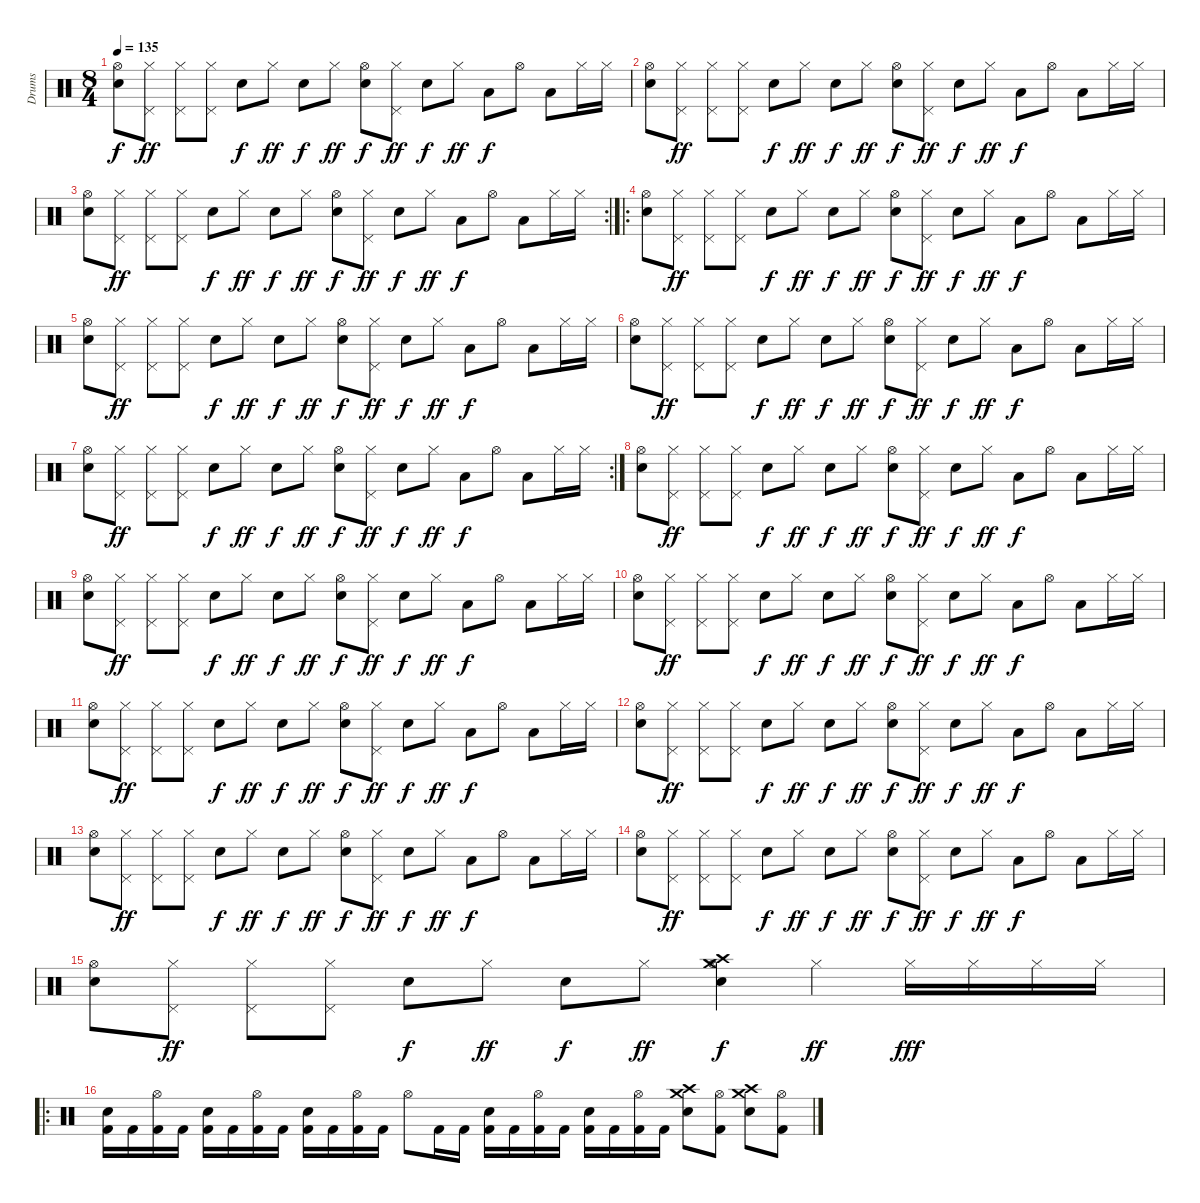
\track ("Drums" "Drums") {instrument percussion}
\staff {score}
\articulation defaults
\ts (8 4)
\tempo 135
\clef neutral
\ks c
("Hi-Hat (open)" "Electric Snare (hit)").8{dy f} ("Pedal Hi-Hat (hit)" "Hi-Hat (closed)").8{dy ff} ("Hi-Hat (closed)" "Pedal Hi-Hat (hit)").8 ("Hi-Hat (closed)" "Pedal Hi-Hat (hit)").8 "Electric Snare (hit)".8{dy f} "Hi-Hat (closed)".8{dy ff} "Electric Snare (hit)".8{dy f} "Hi-Hat (closed)".8{dy ff} ("Hi-Hat (open)" "Electric Snare (hit)").8{dy f} ("Pedal Hi-Hat (hit)" "Hi-Hat (closed)").8{dy ff} "Electric Snare (hit)".8{dy f} "Hi-Hat (closed)".8{dy ff} "Low Tom (hit)".8{dy f} "Hi-Hat (open)".8 "Low Tom (hit)".8 "Hi-Hat (closed)".16 "Hi-Hat (closed)".16 |
("Hi-Hat (open)" "Electric Snare (hit)").8 ("Pedal Hi-Hat (hit)" "Hi-Hat (closed)").8{dy ff} ("Hi-Hat (closed)" "Pedal Hi-Hat (hit)").8 ("Hi-Hat (closed)" "Pedal Hi-Hat (hit)").8 "Electric Snare (hit)".8{dy f} "Hi-Hat (closed)".8{dy ff} "Electric Snare (hit)".8{dy f} "Hi-Hat (closed)".8{dy ff} ("Hi-Hat (open)" "Electric Snare (hit)").8{dy f} ("Pedal Hi-Hat (hit)" "Hi-Hat (closed)").8{dy ff} "Electric Snare (hit)".8{dy f} "Hi-Hat (closed)".8{dy ff} "Low Tom (hit)".8{dy f} "Hi-Hat (open)".8 "Low Tom (hit)".8 "Hi-Hat (closed)".16 "Hi-Hat (closed)".16 |
\rc 2
("Hi-Hat (open)" "Electric Snare (hit)").8 ("Pedal Hi-Hat (hit)" "Hi-Hat (closed)").8{dy ff} ("Hi-Hat (closed)" "Pedal Hi-Hat (hit)").8 ("Hi-Hat (closed)" "Pedal Hi-Hat (hit)").8 "Electric Snare (hit)".8{dy f} "Hi-Hat (closed)".8{dy ff} "Electric Snare (hit)".8{dy f} "Hi-Hat (closed)".8{dy ff} ("Hi-Hat (open)" "Electric Snare (hit)").8{dy f} ("Pedal Hi-Hat (hit)" "Hi-Hat (closed)").8{dy ff} "Electric Snare (hit)".8{dy f} "Hi-Hat (closed)".8{dy ff} "Low Tom (hit)".8{dy f} "Hi-Hat (open)".8 "Low Tom (hit)".8 "Hi-Hat (closed)".16 "Hi-Hat (closed)".16 |
\ro
("Hi-Hat (open)" "Electric Snare (hit)").8 ("Pedal Hi-Hat (hit)" "Hi-Hat (closed)").8{dy ff} ("Hi-Hat (closed)" "Pedal Hi-Hat (hit)").8 ("Hi-Hat (closed)" "Pedal Hi-Hat (hit)").8 "Electric Snare (hit)".8{dy f} "Hi-Hat (closed)".8{dy ff} "Electric Snare (hit)".8{dy f} "Hi-Hat (closed)".8{dy ff} ("Hi-Hat (open)" "Electric Snare (hit)").8{dy f} ("Pedal Hi-Hat (hit)" "Hi-Hat (closed)").8{dy ff} "Electric Snare (hit)".8{dy f} "Hi-Hat (closed)".8{dy ff} "Low Tom (hit)".8{dy f} "Hi-Hat (open)".8 "Low Tom (hit)".8 "Hi-Hat (closed)".16 "Hi-Hat (closed)".16 |
("Hi-Hat (open)" "Electric Snare (hit)").8 ("Pedal Hi-Hat (hit)" "Hi-Hat (closed)").8{dy ff} ("Hi-Hat (closed)" "Pedal Hi-Hat (hit)").8 ("Hi-Hat (closed)" "Pedal Hi-Hat (hit)").8 "Electric Snare (hit)".8{dy f} "Hi-Hat (closed)".8{dy ff} "Electric Snare (hit)".8{dy f} "Hi-Hat (closed)".8{dy ff} ("Hi-Hat (open)" "Electric Snare (hit)").8{dy f} ("Pedal Hi-Hat (hit)" "Hi-Hat (closed)").8{dy ff} "Electric Snare (hit)".8{dy f} "Hi-Hat (closed)".8{dy ff} "Low Tom (hit)".8{dy f} "Hi-Hat (open)".8 "Low Tom (hit)".8 "Hi-Hat (closed)".16 "Hi-Hat (closed)".16 |
("Hi-Hat (open)" "Electric Snare (hit)").8 ("Pedal Hi-Hat (hit)" "Hi-Hat (closed)").8{dy ff} ("Hi-Hat (closed)" "Pedal Hi-Hat (hit)").8 ("Hi-Hat (closed)" "Pedal Hi-Hat (hit)").8 "Electric Snare (hit)".8{dy f} "Hi-Hat (closed)".8{dy ff} "Electric Snare (hit)".8{dy f} "Hi-Hat (closed)".8{dy ff} ("Hi-Hat (open)" "Electric Snare (hit)").8{dy f} ("Pedal Hi-Hat (hit)" "Hi-Hat (closed)").8{dy ff} "Electric Snare (hit)".8{dy f} "Hi-Hat (closed)".8{dy ff} "Low Tom (hit)".8{dy f} "Hi-Hat (open)".8 "Low Tom (hit)".8 "Hi-Hat (closed)".16 "Hi-Hat (closed)".16 |
\rc 2
("Hi-Hat (open)" "Electric Snare (hit)").8 ("Pedal Hi-Hat (hit)" "Hi-Hat (closed)").8{dy ff} ("Hi-Hat (closed)" "Pedal Hi-Hat (hit)").8 ("Hi-Hat (closed)" "Pedal Hi-Hat (hit)").8 "Electric Snare (hit)".8{dy f} "Hi-Hat (closed)".8{dy ff} "Electric Snare (hit)".8{dy f} "Hi-Hat (closed)".8{dy ff} ("Hi-Hat (open)" "Electric Snare (hit)").8{dy f} ("Pedal Hi-Hat (hit)" "Hi-Hat (closed)").8{dy ff} "Electric Snare (hit)".8{dy f} "Hi-Hat (closed)".8{dy ff} "Low Tom (hit)".8{dy f} "Hi-Hat (open)".8 "Low Tom (hit)".8 "Hi-Hat (closed)".16 "Hi-Hat (closed)".16 |
("Hi-Hat (open)" "Electric Snare (hit)").8 ("Pedal Hi-Hat (hit)" "Hi-Hat (closed)").8{dy ff} ("Hi-Hat (closed)" "Pedal Hi-Hat (hit)").8 ("Hi-Hat (closed)" "Pedal Hi-Hat (hit)").8 "Electric Snare (hit)".8{dy f} "Hi-Hat (closed)".8{dy ff} "Electric Snare (hit)".8{dy f} "Hi-Hat (closed)".8{dy ff} ("Hi-Hat (open)" "Electric Snare (hit)").8{dy f} ("Pedal Hi-Hat (hit)" "Hi-Hat (closed)").8{dy ff} "Electric Snare (hit)".8{dy f} "Hi-Hat (closed)".8{dy ff} "Low Tom (hit)".8{dy f} "Hi-Hat (open)".8 "Low Tom (hit)".8 "Hi-Hat (closed)".16 "Hi-Hat (closed)".16 |
("Hi-Hat (open)" "Electric Snare (hit)").8 ("Pedal Hi-Hat (hit)" "Hi-Hat (closed)").8{dy ff} ("Hi-Hat (closed)" "Pedal Hi-Hat (hit)").8 ("Hi-Hat (closed)" "Pedal Hi-Hat (hit)").8 "Electric Snare (hit)".8{dy f} "Hi-Hat (closed)".8{dy ff} "Electric Snare (hit)".8{dy f} "Hi-Hat (closed)".8{dy ff} ("Hi-Hat (open)" "Electric Snare (hit)").8{dy f} ("Pedal Hi-Hat (hit)" "Hi-Hat (closed)").8{dy ff} "Electric Snare (hit)".8{dy f} "Hi-Hat (closed)".8{dy ff} "Low Tom (hit)".8{dy f} "Hi-Hat (open)".8 "Low Tom (hit)".8 "Hi-Hat (closed)".16 "Hi-Hat (closed)".16 |
("Hi-Hat (open)" "Electric Snare (hit)").8 ("Pedal Hi-Hat (hit)" "Hi-Hat (closed)").8{dy ff} ("Hi-Hat (closed)" "Pedal Hi-Hat (hit)").8 ("Hi-Hat (closed)" "Pedal Hi-Hat (hit)").8 "Electric Snare (hit)".8{dy f} "Hi-Hat (closed)".8{dy ff} "Electric Snare (hit)".8{dy f} "Hi-Hat (closed)".8{dy ff} ("Hi-Hat (open)" "Electric Snare (hit)").8{dy f} ("Pedal Hi-Hat (hit)" "Hi-Hat (closed)").8{dy ff} "Electric Snare (hit)".8{dy f} "Hi-Hat (closed)".8{dy ff} "Low Tom (hit)".8{dy f} "Hi-Hat (open)".8 "Low Tom (hit)".8 "Hi-Hat (closed)".16 "Hi-Hat (closed)".16 |
("Hi-Hat (open)" "Electric Snare (hit)").8 ("Pedal Hi-Hat (hit)" "Hi-Hat (closed)").8{dy ff} ("Hi-Hat (closed)" "Pedal Hi-Hat (hit)").8 ("Hi-Hat (closed)" "Pedal Hi-Hat (hit)").8 "Electric Snare (hit)".8{dy f} "Hi-Hat (closed)".8{dy ff} "Electric Snare (hit)".8{dy f} "Hi-Hat (closed)".8{dy ff} ("Hi-Hat (open)" "Electric Snare (hit)").8{dy f} ("Pedal Hi-Hat (hit)" "Hi-Hat (closed)").8{dy ff} "Electric Snare (hit)".8{dy f} "Hi-Hat (closed)".8{dy ff} "Low Tom (hit)".8{dy f} "Hi-Hat (open)".8 "Low Tom (hit)".8 "Hi-Hat (closed)".16 "Hi-Hat (closed)".16 |
("Hi-Hat (open)" "Electric Snare (hit)").8 ("Pedal Hi-Hat (hit)" "Hi-Hat (closed)").8{dy ff} ("Hi-Hat (closed)" "Pedal Hi-Hat (hit)").8 ("Hi-Hat (closed)" "Pedal Hi-Hat (hit)").8 "Electric Snare (hit)".8{dy f} "Hi-Hat (closed)".8{dy ff} "Electric Snare (hit)".8{dy f} "Hi-Hat (closed)".8{dy ff} ("Hi-Hat (open)" "Electric Snare (hit)").8{dy f} ("Pedal Hi-Hat (hit)" "Hi-Hat (closed)").8{dy ff} "Electric Snare (hit)".8{dy f} "Hi-Hat (closed)".8{dy ff} "Low Tom (hit)".8{dy f} "Hi-Hat (open)".8 "Low Tom (hit)".8 "Hi-Hat (closed)".16 "Hi-Hat (closed)".16 |
("Hi-Hat (open)" "Electric Snare (hit)").8 ("Pedal Hi-Hat (hit)" "Hi-Hat (closed)").8{dy ff} ("Hi-Hat (closed)" "Pedal Hi-Hat (hit)").8 ("Hi-Hat (closed)" "Pedal Hi-Hat (hit)").8 "Electric Snare (hit)".8{dy f} "Hi-Hat (closed)".8{dy ff} "Electric Snare (hit)".8{dy f} "Hi-Hat (closed)".8{dy ff} ("Hi-Hat (open)" "Electric Snare (hit)").8{dy f} ("Pedal Hi-Hat (hit)" "Hi-Hat (closed)").8{dy ff} "Electric Snare (hit)".8{dy f} "Hi-Hat (closed)".8{dy ff} "Low Tom (hit)".8{dy f} "Hi-Hat (open)".8 "Low Tom (hit)".8 "Hi-Hat (closed)".16 "Hi-Hat (closed)".16 |
("Hi-Hat (open)" "Electric Snare (hit)").8 ("Pedal Hi-Hat (hit)" "Hi-Hat (closed)").8{dy ff} ("Hi-Hat (closed)" "Pedal Hi-Hat (hit)").8 ("Hi-Hat (closed)" "Pedal Hi-Hat (hit)").8 "Electric Snare (hit)".8{dy f} "Hi-Hat (closed)".8{dy ff} "Electric Snare (hit)".8{dy f} "Hi-Hat (closed)".8{dy ff} ("Hi-Hat (open)" "Electric Snare (hit)").8{dy f} ("Pedal Hi-Hat (hit)" "Hi-Hat (closed)").8{dy ff} "Electric Snare (hit)".8{dy f} "Hi-Hat (closed)".8{dy ff} "Low Tom (hit)".8{dy f} "Hi-Hat (open)".8 "Low Tom (hit)".8 "Hi-Hat (closed)".16 "Hi-Hat (closed)".16 |
("Hi-Hat (open)" "Electric Snare (hit)").8 ("Pedal Hi-Hat (hit)" "Hi-Hat (closed)").8{dy ff} ("Hi-Hat (closed)" "Pedal Hi-Hat (hit)").8 ("Hi-Hat (closed)" "Pedal Hi-Hat (hit)").8 "Electric Snare (hit)".8{dy f} "Hi-Hat (closed)".8{dy ff} "Electric Snare (hit)".8{dy f} "Hi-Hat (closed)".8{dy ff} ("Hi-Hat (open)" "Electric Snare (hit)" "Crash medium (hit)" "Crash high (hit)").4{dy f} "Hi-Hat (closed)".4{dy ff} "Hi-Hat (closed)".16{dy fff} "Hi-Hat (closed)".16 "Hi-Hat (closed)".16 "Hi-Hat (closed)".16 |
\ro
("Electric Snare (hit)" "Kick (hit) 2").16 "Kick (hit) 2".16 ("Hi-Hat (open)" "Kick (hit) 2").16 "Kick (hit) 2".16 ("Electric Snare (hit)" "Kick (hit) 2").16 "Kick (hit) 2".16 ("Hi-Hat (open)" "Kick (hit) 2").16 "Kick (hit) 2".16 ("Kick (hit) 2" "Electric Snare (hit)").16 "Kick (hit) 2".16 ("Hi-Hat (open)" "Kick (hit) 2").16 "Kick (hit) 2".16 "Hi-Hat (open)".8 "Kick (hit) 2".16 "Kick (hit) 2".16 ("Kick (hit) 2" "Electric Snare (hit)").16 "Kick (hit) 2".16 ("Kick (hit) 2" "Hi-Hat (open)").16 "Kick (hit) 2".16 ("Electric Snare (hit)" "Kick (hit) 2").16 "Kick (hit) 2".16 ("Kick (hit) 2" "Hi-Hat (open)").16 "Kick (hit) 2".16 ("Crash medium (hit)" "Crash high (hit)" "Electric Snare (hit)").8 ("Kick (hit) 2" "Hi-Hat (open)").8 ("Crash high (hit)" "Crash medium (hit)" "Electric Snare (hit)").8 ("Kick (hit) 2" "Hi-Hat (open)").8
